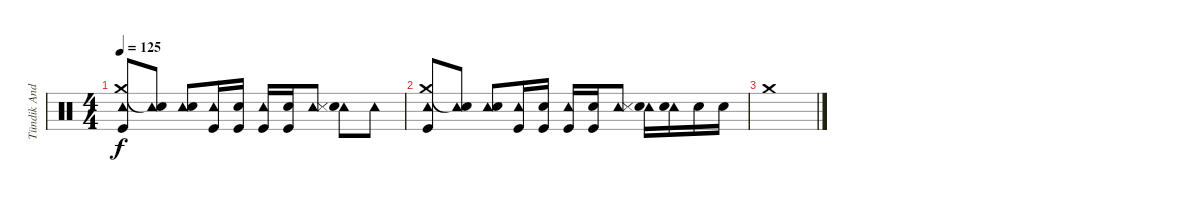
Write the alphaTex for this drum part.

\track ("Tündik András - Dob" "Tündik And") {instrument percussion}
\staff {score}
\articulation defaults
\ts (4 4)
\tempo 125
\clef neutral
\ks c
("Tambourine (hit)" "Crash medium (hit)" "Kick (hit)").8{dy f} ("Tambourine (hit)" "Snare (hit)"{t}).8 ("Tambourine (hit)" "Snare (hit) 2").8 ("Tambourine (hit)" "Kick (hit)").16 ("Snare (hit) 2" "Kick (hit)").16 ("Tambourine (hit)" "Kick (hit)").16 ("Snare (hit) 2" "Kick (hit)").16 ("Tambourine (hit)" "Snare (side stick) 3").8 ("Tambourine (hit)" "Snare (hit) 2").8 "Tambourine (hit)".8 |
("Tambourine (hit)" "Crash medium (hit)" "Kick (hit)").8 ("Tambourine (hit)" "Snare (hit)"{t}).8 ("Tambourine (hit)" "Snare (hit) 2").8 ("Tambourine (hit)" "Kick (hit)").16 ("Snare (hit) 2" "Kick (hit)").16 ("Tambourine (hit)" "Kick (hit)").16 ("Snare (hit) 2" "Kick (hit)").16 ("Tambourine (hit)" "Snare (side stick) 3").8 ("Tambourine (hit)" "Snare (hit) 2").16 ("Tambourine (hit)" "Snare (hit) 2").16 "Snare (hit) 2".16 "Snare (hit) 2".16 |
"Crash medium (hit)".1
